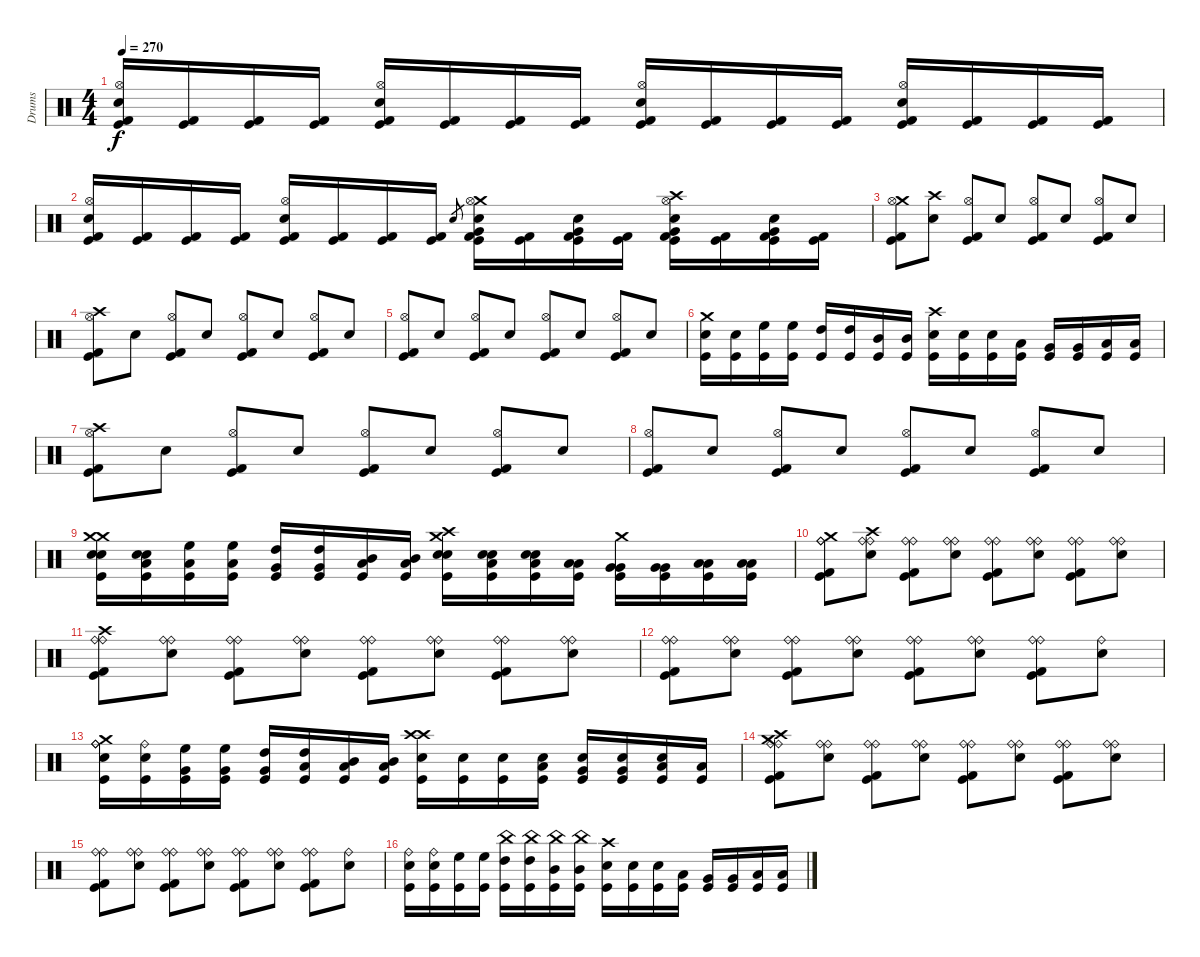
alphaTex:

\track ("Drums" "Drums") {instrument percussion}
\staff {score}
\articulation defaults
\ts (4 4)
\tempo 270
\clef neutral
\ks c
("Kick (hit) 2" "Hi-Hat (open)" "Electric Snare (hit)" "Kick (hit)").16{dy f} ("Kick (hit) 2" "Kick (hit)").16 ("Kick (hit) 2" "Kick (hit)").16 ("Kick (hit) 2" "Kick (hit)").16 ("Kick (hit) 2" "Hi-Hat (open)" "Electric Snare (hit)" "Kick (hit)").16 ("Kick (hit) 2" "Kick (hit)").16 ("Kick (hit) 2" "Kick (hit)").16 ("Kick (hit) 2" "Kick (hit)").16 ("Kick (hit) 2" "Hi-Hat (open)" "Electric Snare (hit)" "Kick (hit)").16 ("Kick (hit) 2" "Kick (hit)").16 ("Kick (hit) 2" "Kick (hit)").16 ("Kick (hit) 2" "Kick (hit)").16 ("Kick (hit) 2" "Hi-Hat (open)" "Electric Snare (hit)" "Kick (hit)").16 ("Kick (hit) 2" "Kick (hit)").16 ("Kick (hit) 2" "Kick (hit)").16 ("Kick (hit) 2" "Kick (hit)").16 |
("Kick (hit) 2" "Hi-Hat (open)" "Electric Snare (hit)" "Kick (hit)").16 ("Kick (hit) 2" "Kick (hit)").16 ("Kick (hit) 2" "Kick (hit)").16 ("Kick (hit) 2" "Kick (hit)").16 ("Kick (hit) 2" "Hi-Hat (open)" "Electric Snare (hit)" "Kick (hit)").16 ("Kick (hit) 2" "Kick (hit)").16 ("Kick (hit) 2" "Kick (hit)").16 ("Kick (hit) 2" "Kick (hit)").16 "Electric Snare (hit)".8{gr} ("Very Low Tom (hit)" "Crash medium (hit)" "Kick (hit) 2" "Hi-Hat (open)" "Electric Snare (hit)" "Kick (hit)").16 ("Kick (hit) 2" "Kick (hit)").16 ("Very Low Tom (hit)" "Kick (hit) 2" "Electric Snare (hit)" "Kick (hit)").16 ("Kick (hit) 2" "Kick (hit)").16 ("Very Low Tom (hit)" "Crash high (hit)" "Kick (hit) 2" "Hi-Hat (open)" "Electric Snare (hit)" "Kick (hit)").16 ("Kick (hit) 2" "Kick (hit)").16 ("Very Low Tom (hit)" "Kick (hit) 2" "Electric Snare (hit)" "Kick (hit)").16 ("Kick (hit) 2" "Kick (hit)").16 |
("Crash medium (hit)" "Hi-Hat (open)" "Kick (hit) 2" "Kick (hit)").8 ("Crash high (hit)" "Electric Snare (hit)").8 ("Hi-Hat (open)" "Kick (hit) 2" "Kick (hit)").8 "Electric Snare (hit)".8 ("Hi-Hat (open)" "Kick (hit) 2" "Kick (hit)").8 "Electric Snare (hit)".8 ("Hi-Hat (open)" "Kick (hit) 2" "Kick (hit)").8 "Electric Snare (hit)".8 |
("Crash high (hit)" "Hi-Hat (open)" "Kick (hit) 2" "Kick (hit)").8 "Electric Snare (hit)".8 ("Hi-Hat (open)" "Kick (hit) 2" "Kick (hit)").8 "Electric Snare (hit)".8 ("Hi-Hat (open)" "Kick (hit) 2" "Kick (hit)").8 "Electric Snare (hit)".8 ("Hi-Hat (open)" "Kick (hit) 2" "Kick (hit)").8 "Electric Snare (hit)".8 |
("Hi-Hat (open)" "Kick (hit) 2" "Kick (hit)").8 "Electric Snare (hit)".8 ("Hi-Hat (open)" "Kick (hit) 2" "Kick (hit)").8 "Electric Snare (hit)".8 ("Hi-Hat (open)" "Kick (hit) 2" "Kick (hit)").8 "Electric Snare (hit)".8 ("Hi-Hat (open)" "Kick (hit) 2" "Kick (hit)").8 "Electric Snare (hit)".8 |
("Crash medium (hit)" "Electric Snare (hit)" "Kick (hit)").16 ("Electric Snare (hit)" "Kick (hit)").16 ("High Floor Tom (hit)" "Kick (hit)").16 ("High Floor Tom (hit)" "Kick (hit)").16 ("High Tom (hit)" "Kick (hit)").16 ("High Tom (hit)" "Kick (hit)").16 ("Mid Tom (hit)" "Kick (hit)").16 ("Mid Tom (hit)" "Kick (hit)").16 ("Crash high (hit)" "Electric Snare (hit)" "Kick (hit)").16 ("Electric Snare (hit)" "Kick (hit)").16 ("Electric Snare (hit)" "Kick (hit)").16 ("Low Floor Tom (hit)" "Kick (hit)").16 ("Very Low Tom (hit)" "Kick (hit)").16 ("Very Low Tom (hit)" "Kick (hit)").16 ("Low Floor Tom (hit)" "Kick (hit)").16 ("Low Floor Tom (hit)" "Kick (hit)").16 |
("Crash high (hit)" "Hi-Hat (open)" "Kick (hit) 2" "Kick (hit)").8 "Electric Snare (hit)".8 ("Hi-Hat (open)" "Kick (hit) 2" "Kick (hit)").8 "Electric Snare (hit)".8 ("Hi-Hat (open)" "Kick (hit) 2" "Kick (hit)").8 "Electric Snare (hit)".8 ("Hi-Hat (open)" "Kick (hit) 2" "Kick (hit)").8 "Electric Snare (hit)".8 |
("Hi-Hat (open)" "Kick (hit) 2" "Kick (hit)").8 "Electric Snare (hit)".8 ("Hi-Hat (open)" "Kick (hit) 2" "Kick (hit)").8 "Electric Snare (hit)".8 ("Hi-Hat (open)" "Kick (hit) 2" "Kick (hit)").8 "Electric Snare (hit)".8 ("Hi-Hat (open)" "Kick (hit) 2" "Kick (hit)").8 "Electric Snare (hit)".8 |
("Electric Snare (hit)" "Crash medium (hit)" "Crash medium (hit)" "Electric Snare (hit)" "Kick (hit)").16 ("Electric Snare (hit)" "Low Tom (hit)" "Electric Snare (hit)" "Kick (hit)").16 ("Low Tom (hit)" "High Floor Tom (hit)" "Kick (hit)").16 ("Low Tom (hit)" "High Floor Tom (hit)" "Kick (hit)").16 ("Very Low Tom (hit)" "High Tom (hit)" "Kick (hit)").16 ("Very Low Tom (hit)" "High Tom (hit)" "Kick (hit)").16 ("Low Floor Tom (hit)" "Mid Tom (hit)" "Kick (hit)").16 ("Low Floor Tom (hit)" "Mid Tom (hit)" "Kick (hit)").16 ("Electric Snare (hit)" "Crash medium (hit)" "Crash high (hit)" "Electric Snare (hit)" "Kick (hit)").16 ("Electric Snare (hit)" "Low Tom (hit)" "Electric Snare (hit)" "Kick (hit)").16 ("Electric Snare (hit)" "Low Tom (hit)" "Electric Snare (hit)" "Kick (hit)").16 ("Low Tom (hit)" "Low Floor Tom (hit)" "Kick (hit)").16 ("Crash medium (hit)" "Very Low Tom (hit)" "Very Low Tom (hit)" "Kick (hit)").16 ("Very Low Tom (hit)" "Very Low Tom (hit)" "Kick (hit)").16 ("Low Floor Tom (hit)" "Low Floor Tom (hit)" "Kick (hit)").16 ("Low Floor Tom (hit)" "Low Floor Tom (hit)" "Kick (hit)").16 |
("Ride (bell)" "Crash medium (hit)" "Ride (bell)" "Kick (hit) 2" "Kick (hit)").8 ("Ride (bell)" "Crash high (hit)" "Ride (bell)" "Electric Snare (hit)").8 ("Ride (bell)" "Ride (bell)" "Kick (hit) 2" "Kick (hit)").8 ("Ride (bell)" "Ride (bell)" "Electric Snare (hit)").8 ("Ride (bell)" "Ride (bell)" "Kick (hit) 2" "Kick (hit)").8 ("Ride (bell)" "Ride (bell)" "Electric Snare (hit)").8 ("Ride (bell)" "Ride (bell)" "Kick (hit) 2" "Kick (hit)").8 ("Ride (bell)" "Ride (bell)" "Electric Snare (hit)").8 |
("Ride (bell)" "Crash high (hit)" "Ride (bell)" "Kick (hit) 2" "Kick (hit)").8 ("Ride (bell)" "Ride (bell)" "Electric Snare (hit)").8 ("Ride (bell)" "Ride (bell)" "Kick (hit) 2" "Kick (hit)").8 ("Ride (bell)" "Ride (bell)" "Electric Snare (hit)").8 ("Ride (bell)" "Ride (bell)" "Kick (hit) 2" "Kick (hit)").8 ("Ride (bell)" "Ride (bell)" "Electric Snare (hit)").8 ("Ride (bell)" "Ride (bell)" "Kick (hit) 2" "Kick (hit)").8 ("Ride (bell)" "Ride (bell)" "Electric Snare (hit)").8 |
("Ride (bell)" "Ride (bell)" "Kick (hit) 2" "Kick (hit)").8 ("Ride (bell)" "Ride (bell)" "Electric Snare (hit)").8 ("Ride (bell)" "Ride (bell)" "Kick (hit) 2" "Kick (hit)").8 ("Ride (bell)" "Ride (bell)" "Electric Snare (hit)").8 ("Ride (bell)" "Ride (bell)" "Kick (hit) 2" "Kick (hit)").8 ("Ride (bell)" "Ride (bell)" "Electric Snare (hit)").8 ("Ride (bell)" "Ride (bell)" "Kick (hit) 2" "Kick (hit)").8 ("Ride (bell)" "Electric Snare (hit)").8 |
("Crash medium (hit)" "Ride (bell)" "Ride (bell)" "Electric Snare (hit)" "Kick (hit)").16 ("Ride (bell)" "Electric Snare (hit)" "Kick (hit)").16 ("Very Low Tom (hit)" "High Floor Tom (hit)" "Kick (hit)").16 ("Very Low Tom (hit)" "High Floor Tom (hit)" "Kick (hit)").16 ("Very Low Tom (hit)" "High Tom (hit)" "Kick (hit)").16 ("Low Floor Tom (hit)" "High Tom (hit)" "Kick (hit)").16 ("Low Floor Tom (hit)" "Mid Tom (hit)" "Kick (hit)").16 ("Low Floor Tom (hit)" "Mid Tom (hit)" "Kick (hit)").16 ("Crash high (hit)" "Crash high (hit)" "Electric Snare (hit)" "Kick (hit)").16 ("Electric Snare (hit)" "Kick (hit)").16 ("Electric Snare (hit)" "Kick (hit)").16 ("Electric Snare (hit)" "Low Floor Tom (hit)" "Kick (hit)").16 ("Electric Snare (hit)" "Very Low Tom (hit)" "Kick (hit)").16 ("Electric Snare (hit)" "Very Low Tom (hit)" "Kick (hit)").16 ("Electric Snare (hit)" "Low Floor Tom (hit)" "Kick (hit)").16 ("Low Floor Tom (hit)" "Kick (hit)").16 |
("Crash medium (hit)" "Ride (bell)" "Crash high (hit)" "Ride (bell)" "Kick (hit) 2" "Kick (hit)").8 ("Ride (bell)" "Ride (bell)" "Electric Snare (hit)").8 ("Ride (bell)" "Ride (bell)" "Kick (hit) 2" "Kick (hit)").8 ("Ride (bell)" "Ride (bell)" "Electric Snare (hit)").8 ("Ride (bell)" "Ride (bell)" "Kick (hit) 2" "Kick (hit)").8 ("Ride (bell)" "Ride (bell)" "Electric Snare (hit)").8 ("Ride (bell)" "Ride (bell)" "Kick (hit) 2" "Kick (hit)").8 ("Ride (bell)" "Ride (bell)" "Electric Snare (hit)").8 |
("Ride (bell)" "Ride (bell)" "Kick (hit) 2" "Kick (hit)").8 ("Ride (bell)" "Ride (bell)" "Electric Snare (hit)").8 ("Ride (bell)" "Ride (bell)" "Kick (hit) 2" "Kick (hit)").8 ("Ride (bell)" "Ride (bell)" "Electric Snare (hit)").8 ("Ride (bell)" "Ride (bell)" "Kick (hit) 2" "Kick (hit)").8 ("Ride (bell)" "Ride (bell)" "Electric Snare (hit)").8 ("Ride (bell)" "Ride (bell)" "Kick (hit) 2" "Kick (hit)").8 ("Ride (bell)" "Electric Snare (hit)").8 |
("Ride (bell)" "Electric Snare (hit)" "Kick (hit)").16 ("Ride (bell)" "Electric Snare (hit)" "Kick (hit)").16 ("High Floor Tom (hit)" "Kick (hit)").16 ("High Floor Tom (hit)" "Kick (hit)").16 ("China (hit)" "High Tom (hit)" "Kick (hit)").16 ("China (hit)" "High Tom (hit)" "Kick (hit)").16 ("China (hit)" "Mid Tom (hit)" "Kick (hit)").16 ("China (hit)" "Mid Tom (hit)" "Kick (hit)").16 ("Crash high (hit)" "Electric Snare (hit)" "Kick (hit)").16 ("Electric Snare (hit)" "Kick (hit)").16 ("Electric Snare (hit)" "Kick (hit)").16 ("Low Floor Tom (hit)" "Kick (hit)").16 ("Very Low Tom (hit)" "Kick (hit)").16 ("Very Low Tom (hit)" "Kick (hit)").16 ("Low Floor Tom (hit)" "Kick (hit)").16 ("Low Floor Tom (hit)" "Kick (hit)").16
